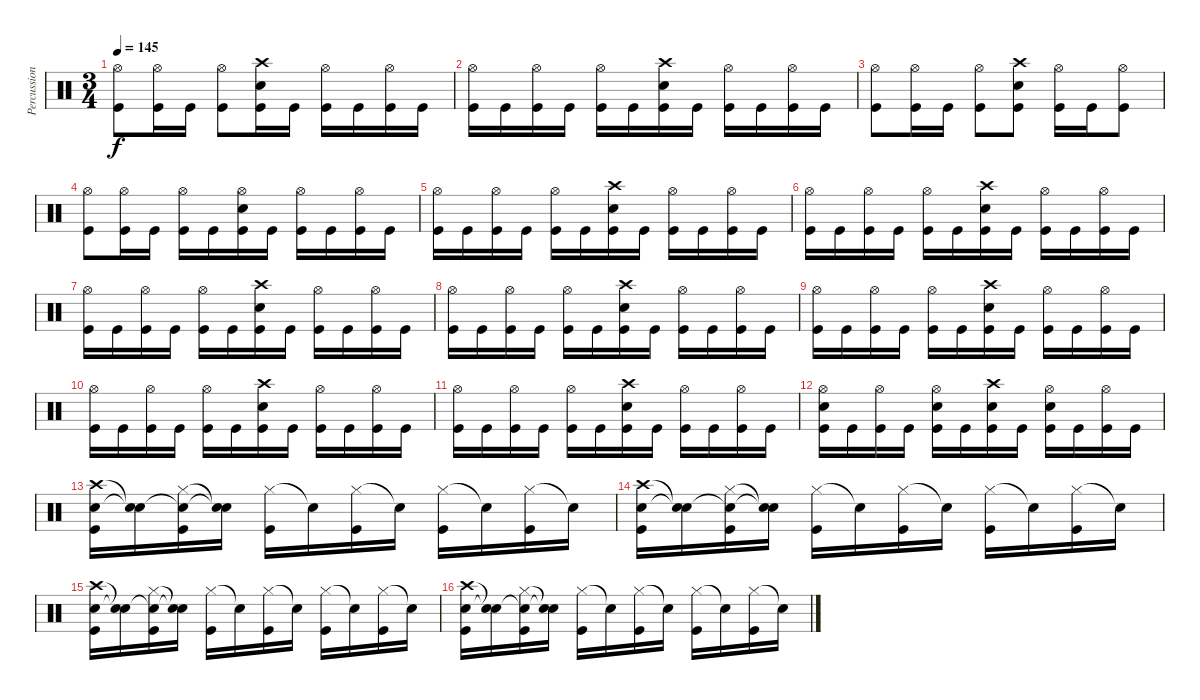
\track ("Percussion" "Percussion") {instrument percussion}
\staff {score}
\articulation defaults
\ts (3 4)
\tempo 145
\clef neutral
\ks c
("Hi-Hat (open)" "Kick (hit)").8{dy f} ("Hi-Hat (open)" "Kick (hit)").16 "Kick (hit)".16 ("Hi-Hat (open)" "Kick (hit)").8 ("Crash high (hit)" "Snare (hit) 2" "Kick (hit)").16 "Kick (hit)".16 ("Hi-Hat (open)" "Kick (hit)").16 "Kick (hit)".16 ("Hi-Hat (open)" "Kick (hit)").16 "Kick (hit)".16 |
("Hi-Hat (open)" "Kick (hit)").16 "Kick (hit)".16 ("Hi-Hat (open)" "Kick (hit)").16 "Kick (hit)".16 ("Hi-Hat (open)" "Kick (hit)").16 "Kick (hit)".16 ("Crash high (hit)" "Snare (hit) 2" "Kick (hit)").16 "Kick (hit)".16 ("Hi-Hat (open)" "Kick (hit)").16 "Kick (hit)".16 ("Hi-Hat (open)" "Kick (hit)").16 "Kick (hit)".16 |
("Hi-Hat (open)" "Kick (hit)").8 ("Hi-Hat (open)" "Kick (hit)").16 "Kick (hit)".16 ("Hi-Hat (open)" "Kick (hit)").8 ("Crash high (hit)" "Snare (hit) 2" "Kick (hit)").8 ("Hi-Hat (open)" "Kick (hit)").16 "Kick (hit)".16 ("Hi-Hat (open)" "Kick (hit)").8 |
("Hi-Hat (open)" "Kick (hit)").8 ("Hi-Hat (open)" "Kick (hit)").16 "Kick (hit)".16 ("Hi-Hat (open)" "Kick (hit)").16 "Kick (hit)".16 ("Hi-Hat (open)" "Snare (hit) 2" "Kick (hit)").16 "Kick (hit)".16 ("Hi-Hat (open)" "Kick (hit)").16 "Kick (hit)".16 ("Hi-Hat (open)" "Kick (hit)").16 "Kick (hit)".16 |
("Hi-Hat (open)" "Kick (hit)").16 "Kick (hit)".16 ("Hi-Hat (open)" "Kick (hit)").16 "Kick (hit)".16 ("Hi-Hat (open)" "Kick (hit)").16 "Kick (hit)".16 ("Crash high (hit)" "Snare (hit) 2" "Kick (hit)").16 "Kick (hit)".16 ("Hi-Hat (open)" "Kick (hit)").16 "Kick (hit)".16 ("Hi-Hat (open)" "Kick (hit)").16 "Kick (hit)".16 |
("Hi-Hat (open)" "Kick (hit)").16 "Kick (hit)".16 ("Hi-Hat (open)" "Kick (hit)").16 "Kick (hit)".16 ("Hi-Hat (open)" "Kick (hit)").16 "Kick (hit)".16 ("Crash high (hit)" "Snare (hit) 2" "Kick (hit)").16 "Kick (hit)".16 ("Hi-Hat (open)" "Kick (hit)").16 "Kick (hit)".16 ("Hi-Hat (open)" "Kick (hit)").16 "Kick (hit)".16 |
("Hi-Hat (open)" "Kick (hit)").16 "Kick (hit)".16 ("Hi-Hat (open)" "Kick (hit)").16 "Kick (hit)".16 ("Hi-Hat (open)" "Kick (hit)").16 "Kick (hit)".16 ("Crash high (hit)" "Snare (hit) 2" "Kick (hit)").16 "Kick (hit)".16 ("Hi-Hat (open)" "Kick (hit)").16 "Kick (hit)".16 ("Hi-Hat (open)" "Kick (hit)").16 "Kick (hit)".16 |
("Hi-Hat (open)" "Kick (hit)").16 "Kick (hit)".16 ("Hi-Hat (open)" "Kick (hit)").16 "Kick (hit)".16 ("Hi-Hat (open)" "Kick (hit)").16 "Kick (hit)".16 ("Crash high (hit)" "Snare (hit) 2" "Kick (hit)").16 "Kick (hit)".16 ("Hi-Hat (open)" "Kick (hit)").16 "Kick (hit)".16 ("Hi-Hat (open)" "Kick (hit)").16 "Kick (hit)".16 |
("Hi-Hat (open)" "Kick (hit)").16 "Kick (hit)".16 ("Hi-Hat (open)" "Kick (hit)").16 "Kick (hit)".16 ("Hi-Hat (open)" "Kick (hit)").16 "Kick (hit)".16 ("Crash high (hit)" "Snare (hit) 2" "Kick (hit)").16 "Kick (hit)".16 ("Hi-Hat (open)" "Kick (hit)").16 "Kick (hit)".16 ("Hi-Hat (open)" "Kick (hit)").16 "Kick (hit)".16 |
("Hi-Hat (open)" "Kick (hit)").16 "Kick (hit)".16 ("Hi-Hat (open)" "Kick (hit)").16 "Kick (hit)".16 ("Hi-Hat (open)" "Kick (hit)").16 "Kick (hit)".16 ("Crash high (hit)" "Snare (hit) 2" "Kick (hit)").16 "Kick (hit)".16 ("Hi-Hat (open)" "Kick (hit)").16 "Kick (hit)".16 ("Hi-Hat (open)" "Kick (hit)").16 "Kick (hit)".16 |
("Hi-Hat (open)" "Kick (hit)").16 "Kick (hit)".16 ("Hi-Hat (open)" "Kick (hit)").16 "Kick (hit)".16 ("Hi-Hat (open)" "Kick (hit)").16 "Kick (hit)".16 ("Crash high (hit)" "Snare (hit) 2" "Kick (hit)").16 "Kick (hit)".16 ("Hi-Hat (open)" "Kick (hit)").16 "Kick (hit)".16 ("Hi-Hat (open)" "Kick (hit)").16 "Kick (hit)".16 |
("Hi-Hat (open)" "Snare (hit) 2" "Kick (hit)").16 "Kick (hit)".16 ("Hi-Hat (open)" "Kick (hit)").16 "Kick (hit)".16 ("Hi-Hat (open)" "Snare (hit) 2" "Kick (hit)").16 "Kick (hit)".16 ("Crash high (hit)" "Snare (hit) 2" "Kick (hit)").16 "Kick (hit)".16 ("Hi-Hat (open)" "Snare (hit) 2" "Kick (hit)").16 "Kick (hit)".16 ("Hi-Hat (open)" "Kick (hit)").16 "Kick (hit)".16 |
("Crash high (hit)" "Electric Snare (hit)" "Kick (hit)").16 ("Snare (hit)"{t} "Snare (hit)"{t}).16 ("Snare (hit)"{t} "Hi-Hat (closed)" "Kick (hit)").16 ("Snare (hit)"{t} "Snare (hit)"{t}).16 ("Hi-Hat (closed)" "Kick (hit)").16 "Snare (hit)"{t}.16 ("Hi-Hat (closed)" "Kick (hit)").16 "Snare (hit)"{t}.16 ("Hi-Hat (closed)" "Kick (hit)").16 "Snare (hit)"{t}.16 ("Hi-Hat (closed)" "Kick (hit)").16 "Snare (hit)"{t}.16 |
("Crash high (hit)" "Electric Snare (hit)" "Kick (hit)").16 ("Snare (hit)"{t} "Snare (hit)"{t}).16 ("Snare (hit)"{t} "Hi-Hat (closed)" "Kick (hit)").16 ("Snare (hit)"{t} "Snare (hit)"{t}).16 ("Hi-Hat (closed)" "Kick (hit)").16 "Snare (hit)"{t}.16 ("Hi-Hat (closed)" "Kick (hit)").16 "Snare (hit)"{t}.16 ("Hi-Hat (closed)" "Kick (hit)").16 "Snare (hit)"{t}.16 ("Hi-Hat (closed)" "Kick (hit)").16 "Snare (hit)"{t}.16 |
("Crash high (hit)" "Electric Snare (hit)" "Kick (hit)").16 ("Snare (hit)"{t} "Snare (hit)"{t}).16 ("Snare (hit)"{t} "Hi-Hat (closed)" "Kick (hit)").16 ("Snare (hit)"{t} "Snare (hit)"{t}).16 ("Hi-Hat (closed)" "Kick (hit)").16 "Snare (hit)"{t}.16 ("Hi-Hat (closed)" "Kick (hit)").16 "Snare (hit)"{t}.16 ("Hi-Hat (closed)" "Kick (hit)").16 "Snare (hit)"{t}.16 ("Hi-Hat (closed)" "Kick (hit)").16 "Snare (hit)"{t}.16 |
("Crash high (hit)" "Electric Snare (hit)" "Kick (hit)").16 ("Snare (hit)"{t} "Snare (hit)"{t}).16 ("Snare (hit)"{t} "Hi-Hat (closed)" "Kick (hit)").16 ("Snare (hit)"{t} "Snare (hit)"{t}).16 ("Hi-Hat (closed)" "Kick (hit)").16 "Snare (hit)"{t}.16 ("Hi-Hat (closed)" "Kick (hit)").16 "Snare (hit)"{t}.16 ("Hi-Hat (closed)" "Kick (hit)").16 "Snare (hit)"{t}.16 ("Hi-Hat (closed)" "Kick (hit)").16 "Snare (hit)"{t}.16
